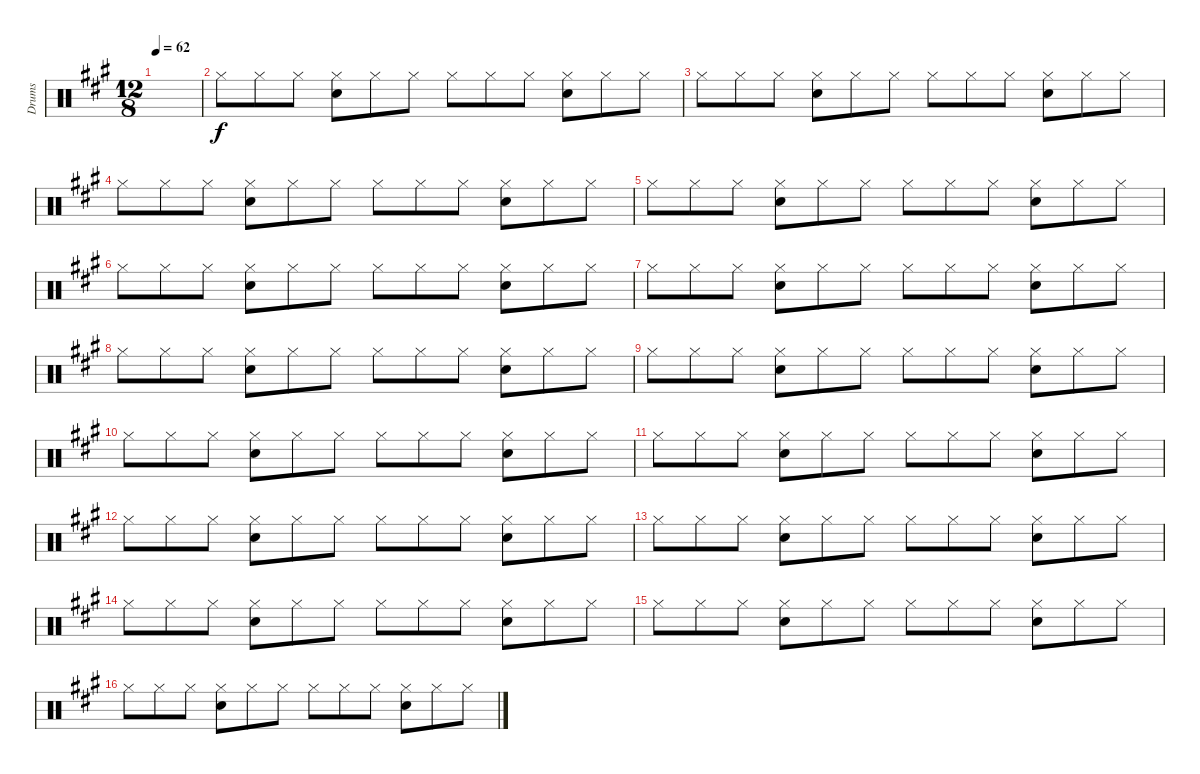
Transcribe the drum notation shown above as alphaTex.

\track ("Drums" "Drums") {instrument percussion}
\staff {score}
\articulation defaults
\ts (12 8)
\tempo 62
\clef neutral
\ks a
|
"Hi-Hat (closed)".8 "Hi-Hat (closed)".8 "Hi-Hat (closed)".8 ("Hi-Hat (closed)" "Snare (hit) 2").8 "Hi-Hat (closed)".8 "Hi-Hat (closed)".8 "Hi-Hat (closed)".8 "Hi-Hat (closed)".8 "Hi-Hat (closed)".8 ("Hi-Hat (closed)" "Snare (hit) 2").8 "Hi-Hat (closed)".8 "Hi-Hat (closed)".8 |
"Hi-Hat (closed)".8 "Hi-Hat (closed)".8 "Hi-Hat (closed)".8 ("Hi-Hat (closed)" "Snare (hit) 2").8 "Hi-Hat (closed)".8 "Hi-Hat (closed)".8 "Hi-Hat (closed)".8 "Hi-Hat (closed)".8 "Hi-Hat (closed)".8 ("Hi-Hat (closed)" "Snare (hit) 2").8 "Hi-Hat (closed)".8 "Hi-Hat (closed)".8 |
"Hi-Hat (closed)".8 "Hi-Hat (closed)".8 "Hi-Hat (closed)".8 ("Hi-Hat (closed)" "Snare (hit) 2").8 "Hi-Hat (closed)".8 "Hi-Hat (closed)".8 "Hi-Hat (closed)".8 "Hi-Hat (closed)".8 "Hi-Hat (closed)".8 ("Hi-Hat (closed)" "Snare (hit) 2").8 "Hi-Hat (closed)".8 "Hi-Hat (closed)".8 |
"Hi-Hat (closed)".8 "Hi-Hat (closed)".8 "Hi-Hat (closed)".8 ("Hi-Hat (closed)" "Snare (hit) 2").8 "Hi-Hat (closed)".8 "Hi-Hat (closed)".8 "Hi-Hat (closed)".8 "Hi-Hat (closed)".8 "Hi-Hat (closed)".8 ("Hi-Hat (closed)" "Snare (hit) 2").8 "Hi-Hat (closed)".8 "Hi-Hat (closed)".8 |
"Hi-Hat (closed)".8 "Hi-Hat (closed)".8 "Hi-Hat (closed)".8 ("Hi-Hat (closed)" "Snare (hit) 2").8 "Hi-Hat (closed)".8 "Hi-Hat (closed)".8 "Hi-Hat (closed)".8 "Hi-Hat (closed)".8 "Hi-Hat (closed)".8 ("Hi-Hat (closed)" "Snare (hit) 2").8 "Hi-Hat (closed)".8 "Hi-Hat (closed)".8 |
"Hi-Hat (closed)".8 "Hi-Hat (closed)".8 "Hi-Hat (closed)".8 ("Hi-Hat (closed)" "Snare (hit) 2").8 "Hi-Hat (closed)".8 "Hi-Hat (closed)".8 "Hi-Hat (closed)".8 "Hi-Hat (closed)".8 "Hi-Hat (closed)".8 ("Hi-Hat (closed)" "Snare (hit) 2").8 "Hi-Hat (closed)".8 "Hi-Hat (closed)".8 |
"Hi-Hat (closed)".8 "Hi-Hat (closed)".8 "Hi-Hat (closed)".8 ("Hi-Hat (closed)" "Snare (hit) 2").8 "Hi-Hat (closed)".8 "Hi-Hat (closed)".8 "Hi-Hat (closed)".8 "Hi-Hat (closed)".8 "Hi-Hat (closed)".8 ("Hi-Hat (closed)" "Snare (hit) 2").8 "Hi-Hat (closed)".8 "Hi-Hat (closed)".8 |
"Hi-Hat (closed)".8 "Hi-Hat (closed)".8 "Hi-Hat (closed)".8 ("Hi-Hat (closed)" "Snare (hit) 2").8 "Hi-Hat (closed)".8 "Hi-Hat (closed)".8 "Hi-Hat (closed)".8 "Hi-Hat (closed)".8 "Hi-Hat (closed)".8 ("Hi-Hat (closed)" "Snare (hit) 2").8 "Hi-Hat (closed)".8 "Hi-Hat (closed)".8 |
"Hi-Hat (closed)".8 "Hi-Hat (closed)".8 "Hi-Hat (closed)".8 ("Hi-Hat (closed)" "Snare (hit) 2").8 "Hi-Hat (closed)".8 "Hi-Hat (closed)".8 "Hi-Hat (closed)".8 "Hi-Hat (closed)".8 "Hi-Hat (closed)".8 ("Hi-Hat (closed)" "Snare (hit) 2").8 "Hi-Hat (closed)".8 "Hi-Hat (closed)".8 |
"Hi-Hat (closed)".8 "Hi-Hat (closed)".8 "Hi-Hat (closed)".8 ("Hi-Hat (closed)" "Snare (hit) 2").8 "Hi-Hat (closed)".8 "Hi-Hat (closed)".8 "Hi-Hat (closed)".8 "Hi-Hat (closed)".8 "Hi-Hat (closed)".8 ("Hi-Hat (closed)" "Snare (hit) 2").8 "Hi-Hat (closed)".8 "Hi-Hat (closed)".8 |
"Hi-Hat (closed)".8 "Hi-Hat (closed)".8 "Hi-Hat (closed)".8 ("Hi-Hat (closed)" "Snare (hit) 2").8 "Hi-Hat (closed)".8 "Hi-Hat (closed)".8 "Hi-Hat (closed)".8 "Hi-Hat (closed)".8 "Hi-Hat (closed)".8 ("Hi-Hat (closed)" "Snare (hit) 2").8 "Hi-Hat (closed)".8 "Hi-Hat (closed)".8 |
"Hi-Hat (closed)".8 "Hi-Hat (closed)".8 "Hi-Hat (closed)".8 ("Hi-Hat (closed)" "Snare (hit) 2").8 "Hi-Hat (closed)".8 "Hi-Hat (closed)".8 "Hi-Hat (closed)".8 "Hi-Hat (closed)".8 "Hi-Hat (closed)".8 ("Hi-Hat (closed)" "Snare (hit) 2").8 "Hi-Hat (closed)".8 "Hi-Hat (closed)".8 |
"Hi-Hat (closed)".8 "Hi-Hat (closed)".8 "Hi-Hat (closed)".8 ("Hi-Hat (closed)" "Snare (hit) 2").8 "Hi-Hat (closed)".8 "Hi-Hat (closed)".8 "Hi-Hat (closed)".8 "Hi-Hat (closed)".8 "Hi-Hat (closed)".8 ("Hi-Hat (closed)" "Snare (hit) 2").8 "Hi-Hat (closed)".8 "Hi-Hat (closed)".8 |
"Hi-Hat (closed)".8 "Hi-Hat (closed)".8 "Hi-Hat (closed)".8 ("Hi-Hat (closed)" "Snare (hit) 2").8 "Hi-Hat (closed)".8 "Hi-Hat (closed)".8 "Hi-Hat (closed)".8 "Hi-Hat (closed)".8 "Hi-Hat (closed)".8 ("Hi-Hat (closed)" "Snare (hit) 2").8 "Hi-Hat (closed)".8 "Hi-Hat (closed)".8 |
"Hi-Hat (closed)".8 "Hi-Hat (closed)".8 "Hi-Hat (closed)".8 ("Hi-Hat (closed)" "Snare (hit) 2").8 "Hi-Hat (closed)".8 "Hi-Hat (closed)".8 "Hi-Hat (closed)".8 "Hi-Hat (closed)".8 "Hi-Hat (closed)".8 ("Hi-Hat (closed)" "Snare (hit) 2").8 "Hi-Hat (closed)".8 "Hi-Hat (closed)".8
